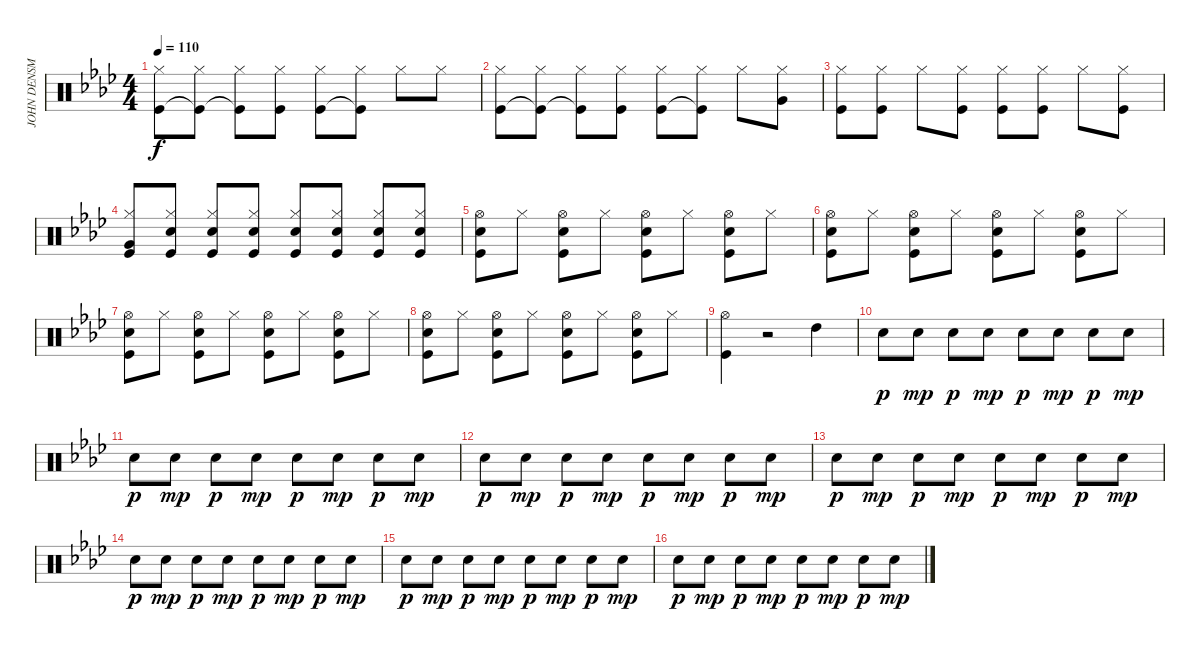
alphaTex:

\track ("JOHN DENSMORE" "JOHN DENSM") {instrument percussion}
\staff {score}
\articulation defaults
\ts (4 4)
\tempo 110
\clef neutral
\ks ab
("Kick (hit)" "Hi-Hat (closed)").8{dy f} ("Kick (hit)"{t} "Hi-Hat (closed)").8 ("Kick (hit)"{t} "Hi-Hat (closed)").8 ("Kick (hit)" "Hi-Hat (closed)").8 ("Kick (hit)" "Hi-Hat (closed)").8 ("Kick (hit)"{t} "Hi-Hat (closed)").8 "Hi-Hat (closed)".8 "Hi-Hat (closed)".8 |
("Kick (hit)" "Hi-Hat (closed)").8 ("Kick (hit)"{t} "Hi-Hat (closed)").8 ("Kick (hit)"{t} "Hi-Hat (closed)").8 ("Kick (hit)" "Hi-Hat (closed)").8 ("Kick (hit)" "Hi-Hat (closed)").8 ("Kick (hit)"{t} "Hi-Hat (closed)").8 "Hi-Hat (closed)".8 ("Hi-Hat (closed)" "Very Low Tom (hit)").8 |
("Kick (hit)" "Hi-Hat (closed)").8 ("Hi-Hat (closed)" "Kick (hit)").8 "Hi-Hat (closed)".8 ("Hi-Hat (closed)" "Kick (hit)").8 ("Kick (hit)" "Hi-Hat (closed)").8 ("Hi-Hat (closed)" "Kick (hit)").8 "Hi-Hat (closed)".8 ("Hi-Hat (closed)" "Kick (hit)").8 |
("Hi-Hat (closed)" "Kick (hit)" "Very Low Tom (hit)").8 ("Hi-Hat (closed)" "Kick (hit)" "Snare (hit) 2").8 ("Hi-Hat (closed)" "Kick (hit)" "Snare (hit) 2").8 ("Hi-Hat (closed)" "Kick (hit)" "Snare (hit) 2").8 ("Hi-Hat (closed)" "Kick (hit)" "Snare (hit) 2").8 ("Hi-Hat (closed)" "Kick (hit)" "Snare (hit) 2").8 ("Hi-Hat (closed)" "Kick (hit)" "Snare (hit) 2").8 ("Hi-Hat (closed)" "Kick (hit)" "Snare (hit) 2").8 |
("Kick (hit)" "Snare (hit) 2" "Hi-Hat (open)").8 "Hi-Hat (closed)".8 ("Kick (hit)" "Snare (hit) 2" "Hi-Hat (open)").8 "Hi-Hat (closed)".8 ("Kick (hit)" "Snare (hit) 2" "Hi-Hat (open)").8 "Hi-Hat (closed)".8 ("Kick (hit)" "Snare (hit) 2" "Hi-Hat (open)").8 "Hi-Hat (closed)".8 |
("Kick (hit)" "Snare (hit) 2" "Hi-Hat (open)").8 "Hi-Hat (closed)".8 ("Kick (hit)" "Snare (hit) 2" "Hi-Hat (open)").8 "Hi-Hat (closed)".8 ("Kick (hit)" "Snare (hit) 2" "Hi-Hat (open)").8 "Hi-Hat (closed)".8 ("Kick (hit)" "Snare (hit) 2" "Hi-Hat (open)").8 "Hi-Hat (closed)".8 |
("Kick (hit)" "Snare (hit) 2" "Hi-Hat (open)").8 "Hi-Hat (closed)".8 ("Kick (hit)" "Snare (hit) 2" "Hi-Hat (open)").8 "Hi-Hat (closed)".8 ("Kick (hit)" "Snare (hit) 2" "Hi-Hat (open)").8 "Hi-Hat (closed)".8 ("Kick (hit)" "Snare (hit) 2" "Hi-Hat (open)").8 "Hi-Hat (closed)".8 |
("Kick (hit)" "Snare (hit) 2" "Hi-Hat (open)").8 "Hi-Hat (closed)".8 ("Kick (hit)" "Snare (hit) 2" "Hi-Hat (open)").8 "Hi-Hat (closed)".8 ("Kick (hit)" "Snare (hit) 2" "Hi-Hat (open)").8 "Hi-Hat (closed)".8 ("Kick (hit)" "Snare (hit) 2" "Hi-Hat (open)").8 "Hi-Hat (closed)".8 |
("Hi-Hat (open)" "Kick (hit)").4 r.2 "High Tom (hit)".4 |
"Snare (hit) 2".8{dy p} "Snare (hit) 2".8{dy mp} "Snare (hit) 2".8{dy p} "Snare (hit) 2".8{dy mp} "Snare (hit) 2".8{dy p} "Snare (hit) 2".8{dy mp} "Snare (hit) 2".8{dy p} "Snare (hit) 2".8{dy mp} |
"Snare (hit) 2".8{dy p} "Snare (hit) 2".8{dy mp} "Snare (hit) 2".8{dy p} "Snare (hit) 2".8{dy mp} "Snare (hit) 2".8{dy p} "Snare (hit) 2".8{dy mp} "Snare (hit) 2".8{dy p} "Snare (hit) 2".8{dy mp} |
"Snare (hit) 2".8{dy p} "Snare (hit) 2".8{dy mp} "Snare (hit) 2".8{dy p} "Snare (hit) 2".8{dy mp} "Snare (hit) 2".8{dy p} "Snare (hit) 2".8{dy mp} "Snare (hit) 2".8{dy p} "Snare (hit) 2".8{dy mp} |
"Snare (hit) 2".8{dy p} "Snare (hit) 2".8{dy mp} "Snare (hit) 2".8{dy p} "Snare (hit) 2".8{dy mp} "Snare (hit) 2".8{dy p} "Snare (hit) 2".8{dy mp} "Snare (hit) 2".8{dy p} "Snare (hit) 2".8{dy mp} |
"Snare (hit) 2".8{dy p} "Snare (hit) 2".8{dy mp} "Snare (hit) 2".8{dy p} "Snare (hit) 2".8{dy mp} "Snare (hit) 2".8{dy p} "Snare (hit) 2".8{dy mp} "Snare (hit) 2".8{dy p} "Snare (hit) 2".8{dy mp} |
"Snare (hit) 2".8{dy p} "Snare (hit) 2".8{dy mp} "Snare (hit) 2".8{dy p} "Snare (hit) 2".8{dy mp} "Snare (hit) 2".8{dy p} "Snare (hit) 2".8{dy mp} "Snare (hit) 2".8{dy p} "Snare (hit) 2".8{dy mp} |
"Snare (hit) 2".8{dy p} "Snare (hit) 2".8{dy mp} "Snare (hit) 2".8{dy p} "Snare (hit) 2".8{dy mp} "Snare (hit) 2".8{dy p} "Snare (hit) 2".8{dy mp} "Snare (hit) 2".8{dy p} "Snare (hit) 2".8{dy mp}
